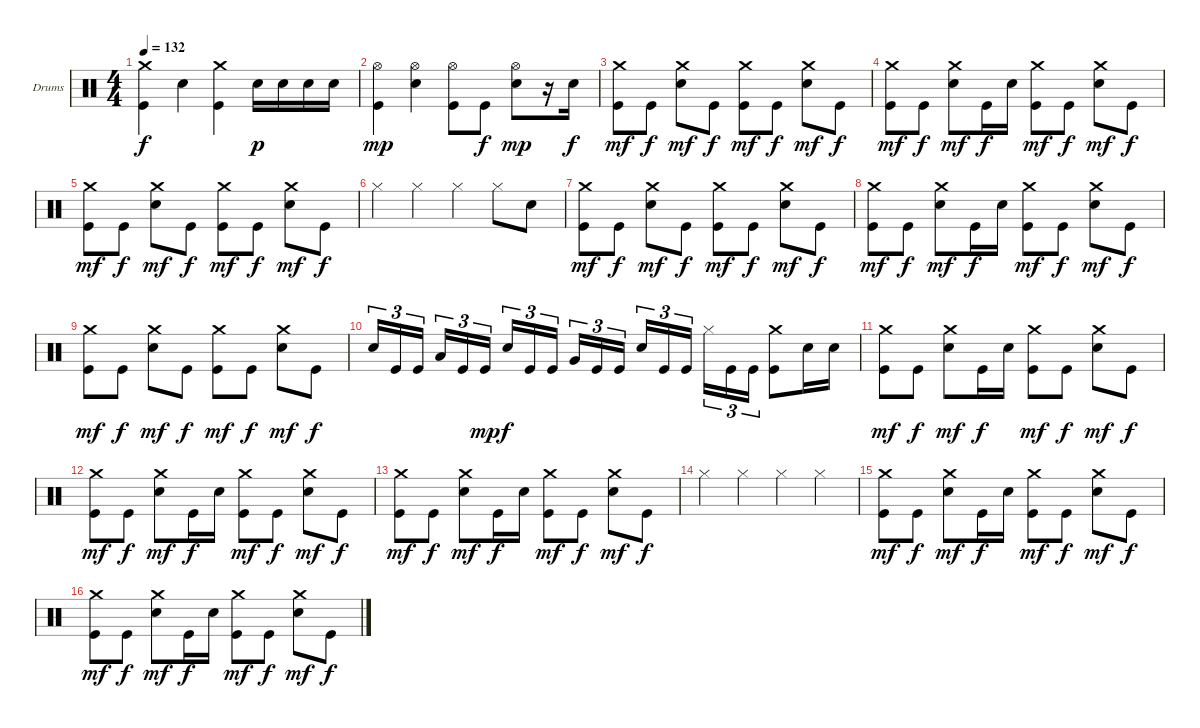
\bracketExtendMode groupsimilarinstruments
\firstSystemTrackNameOrientation horizontal
\otherSystemsTrackNameOrientation horizontal
\track ("Drumkit" "Drums") {instrument percussion}
\staff {score}
\articulation defaults
\ts (4 4)
\tempo 132
\clef neutral
\ks c
("Crash medium (hit)" "Kick (hit)").4{dy f} "Snare (hit) 2".4 ("Crash medium (hit)" "Kick (hit)").4 "Snare (hit) 2".16{dy p} "Snare (hit) 2".16 "Snare (hit) 2".16 "Snare (hit) 2".16 |
("Hi-Hat (open)" "Kick (hit)").4{dy mp} ("Hi-Hat (open)" "Snare (hit) 2").4 ("Hi-Hat (open)" "Kick (hit)").8 "Kick (hit)".8{dy f} ("Hi-Hat (open)" "Snare (hit) 2").8{dy mp} r.16 "Snare (hit) 2".16{dy f} |
("Crash medium (hit)" "Kick (hit)").8{dy mf} "Kick (hit)".8{dy f} ("Crash medium (hit)" "Snare (hit) 2").8{dy mf} "Kick (hit)".8{dy f} ("Crash medium (hit)" "Kick (hit)").8{dy mf} "Kick (hit)".8{dy f} ("Crash medium (hit)" "Snare (hit) 2").8{dy mf} "Kick (hit)".8{dy f} |
("Crash medium (hit)" "Kick (hit)").8{dy mf} "Kick (hit)".8{dy f} ("Crash medium (hit)" "Snare (hit) 2").8{dy mf} "Kick (hit)".16{dy f} "Snare (hit) 2".16 ("Crash medium (hit)" "Kick (hit)").8{dy mf} "Kick (hit)".8{dy f} ("Crash medium (hit)" "Snare (hit) 2").8{dy mf} "Kick (hit)".8{dy f} |
("Crash medium (hit)" "Kick (hit)").8{dy mf} "Kick (hit)".8{dy f} ("Crash medium (hit)" "Snare (hit) 2").8{dy mf} "Kick (hit)".8{dy f} ("Crash medium (hit)" "Kick (hit)").8{dy mf} "Kick (hit)".8{dy f} ("Crash medium (hit)" "Snare (hit) 2").8{dy mf} "Kick (hit)".8{dy f} |
"Hi-Hat (closed)".4 "Hi-Hat (closed)".4 "Hi-Hat (closed)".4 "Hi-Hat (closed)".8 "Snare (hit) 2".8 |
("Crash medium (hit)" "Kick (hit)").8{dy mf} "Kick (hit)".8{dy f} ("Crash medium (hit)" "Snare (hit) 2").8{dy mf} "Kick (hit)".8{dy f} ("Crash medium (hit)" "Kick (hit)").8{dy mf} "Kick (hit)".8{dy f} ("Crash medium (hit)" "Snare (hit) 2").8{dy mf} "Kick (hit)".8{dy f} |
("Crash medium (hit)" "Kick (hit)").8{dy mf} "Kick (hit)".8{dy f} ("Crash medium (hit)" "Snare (hit) 2").8{dy mf} "Kick (hit)".16{dy f} "Snare (hit) 2".16 ("Crash medium (hit)" "Kick (hit)").8{dy mf} "Kick (hit)".8{dy f} ("Crash medium (hit)" "Snare (hit) 2").8{dy mf} "Kick (hit)".8{dy f} |
("Crash medium (hit)" "Kick (hit)").8{dy mf} "Kick (hit)".8{dy f} ("Crash medium (hit)" "Snare (hit) 2").8{dy mf} "Kick (hit)".8{dy f} ("Crash medium (hit)" "Kick (hit)").8{dy mf} "Kick (hit)".8{dy f} ("Crash medium (hit)" "Snare (hit) 2").8{dy mf} "Kick (hit)".8{dy f} |
"Snare (hit) 2".16{tu (3 2)} "Kick (hit)".16{tu (3 2)} "Kick (hit)".16{tu (3 2)} "Low Tom (hit)".16{tu (3 2)} "Kick (hit)".16{tu (3 2)} "Kick (hit)".16{tu (3 2) dy mp} "Snare (hit) 2".16{tu (3 2) dy f} "Kick (hit)".16{tu (3 2)} "Kick (hit)".16{tu (3 2)} "Very Low Tom (hit)".16{tu (3 2)} "Kick (hit)".16{tu (3 2)} "Kick (hit)".16{tu (3 2)} "Snare (hit) 2".16{tu (3 2)} "Kick (hit)".16{tu (3 2)} "Kick (hit)".16{tu (3 2)} "Hi-Hat (closed)".16{tu (3 2)} "Kick (hit)".16{tu (3 2)} "Kick (hit)".16{tu (3 2)} ("Crash medium (hit)" "Kick (hit)").8 "Snare (hit) 2".16 "Snare (hit) 2".16 |
("Crash medium (hit)" "Kick (hit)").8{dy mf} "Kick (hit)".8{dy f} ("Crash medium (hit)" "Snare (hit) 2").8{dy mf} "Kick (hit)".16{dy f} "Snare (hit) 2".16 ("Crash medium (hit)" "Kick (hit)").8{dy mf} "Kick (hit)".8{dy f} ("Crash medium (hit)" "Snare (hit) 2").8{dy mf} "Kick (hit)".8{dy f} |
("Crash medium (hit)" "Kick (hit)").8{dy mf} "Kick (hit)".8{dy f} ("Crash medium (hit)" "Snare (hit) 2").8{dy mf} "Kick (hit)".16{dy f} "Snare (hit) 2".16 ("Crash medium (hit)" "Kick (hit)").8{dy mf} "Kick (hit)".8{dy f} ("Crash medium (hit)" "Snare (hit) 2").8{dy mf} "Kick (hit)".8{dy f} |
("Crash medium (hit)" "Kick (hit)").8{dy mf} "Kick (hit)".8{dy f} ("Crash medium (hit)" "Snare (hit) 2").8{dy mf} "Kick (hit)".16{dy f} "Snare (hit) 2".16 ("Crash medium (hit)" "Kick (hit)").8{dy mf} "Kick (hit)".8{dy f} ("Crash medium (hit)" "Snare (hit) 2").8{dy mf} "Kick (hit)".8{dy f} |
"Hi-Hat (closed)".4 "Hi-Hat (closed)".4 "Hi-Hat (closed)".4 "Hi-Hat (closed)".4 |
("Crash medium (hit)" "Kick (hit)").8{dy mf} "Kick (hit)".8{dy f} ("Crash medium (hit)" "Snare (hit) 2").8{dy mf} "Kick (hit)".16{dy f} "Snare (hit) 2".16 ("Crash medium (hit)" "Kick (hit)").8{dy mf} "Kick (hit)".8{dy f} ("Crash medium (hit)" "Snare (hit) 2").8{dy mf} "Kick (hit)".8{dy f} |
("Crash medium (hit)" "Kick (hit)").8{dy mf} "Kick (hit)".8{dy f} ("Crash medium (hit)" "Snare (hit) 2").8{dy mf} "Kick (hit)".16{dy f} "Snare (hit) 2".16 ("Crash medium (hit)" "Kick (hit)").8{dy mf} "Kick (hit)".8{dy f} ("Crash medium (hit)" "Snare (hit) 2").8{dy mf} "Kick (hit)".8{dy f}
